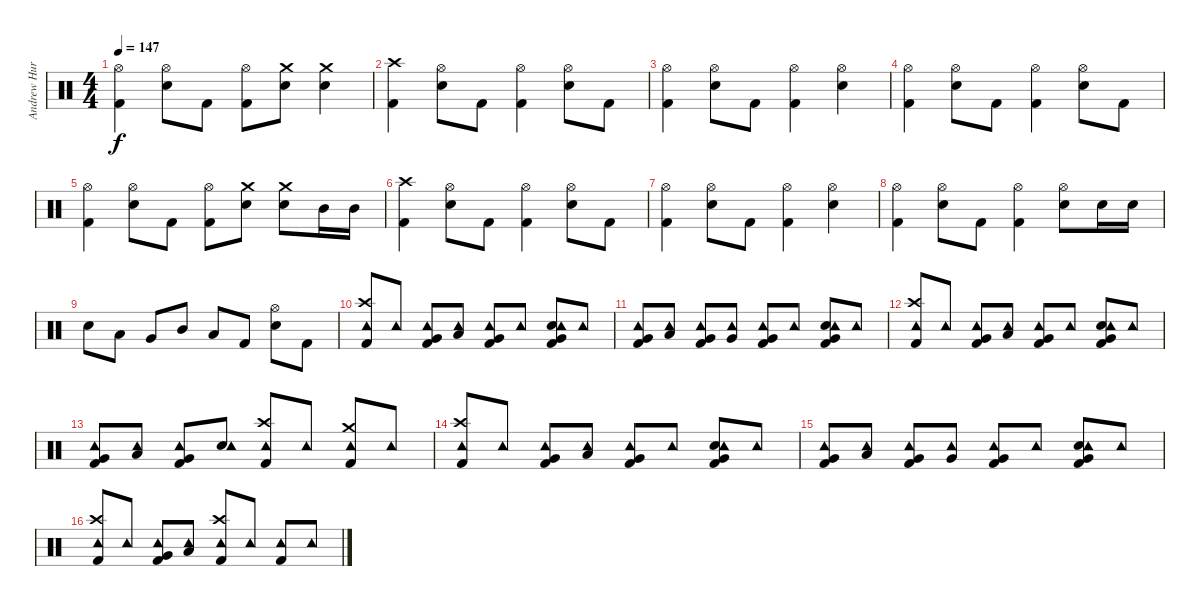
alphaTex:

\track ("Andrew Hurley (Drums)" "Andrew Hur") {instrument percussion}
\staff {score}
\articulation defaults
\ts (4 4)
\tempo 147
\clef neutral
\ks c
("Hi-Hat (open)" "Kick (hit) 2").4{dy f} ("Hi-Hat (open)" "Snare (hit) 2").8 "Kick (hit) 2".8 ("Hi-Hat (open)" "Kick (hit) 2").8 ("Crash medium (hit)" "Snare (hit) 2").8 ("Crash medium (hit)" "Snare (hit) 2").4 |
("Crash high (hit)" "Kick (hit) 2").4 ("Hi-Hat (open)" "Snare (hit) 2").8 "Kick (hit) 2".8 ("Hi-Hat (open)" "Kick (hit) 2").4 ("Hi-Hat (open)" "Snare (hit) 2").8 "Kick (hit) 2".8 |
("Hi-Hat (open)" "Kick (hit) 2").4 ("Hi-Hat (open)" "Snare (hit) 2").8 "Kick (hit) 2".8 ("Hi-Hat (open)" "Kick (hit) 2").4 ("Hi-Hat (open)" "Snare (hit) 2").4 |
("Hi-Hat (open)" "Kick (hit) 2").4 ("Hi-Hat (open)" "Snare (hit) 2").8 "Kick (hit) 2".8 ("Hi-Hat (open)" "Kick (hit) 2").4 ("Hi-Hat (open)" "Snare (hit) 2").8 "Kick (hit) 2".8 |
("Hi-Hat (open)" "Kick (hit) 2").4 ("Hi-Hat (open)" "Snare (hit) 2").8 "Kick (hit) 2".8 ("Hi-Hat (open)" "Kick (hit) 2").8 ("Crash medium (hit)" "Snare (hit) 2").8 ("Crash medium (hit)" "Snare (hit) 2").8 "Mid Tom (hit)".16 "Mid Tom (hit)".16 |
("Crash high (hit)" "Kick (hit) 2").4 ("Hi-Hat (open)" "Snare (hit) 2").8 "Kick (hit) 2".8 ("Hi-Hat (open)" "Kick (hit) 2").4 ("Hi-Hat (open)" "Snare (hit) 2").8 "Kick (hit) 2".8 |
("Hi-Hat (open)" "Kick (hit) 2").4 ("Hi-Hat (open)" "Snare (hit) 2").8 "Kick (hit) 2".8 ("Hi-Hat (open)" "Kick (hit) 2").4 ("Hi-Hat (open)" "Snare (hit) 2").4 |
("Hi-Hat (open)" "Kick (hit) 2").4 ("Hi-Hat (open)" "Snare (hit) 2").8 "Kick (hit) 2".8 ("Hi-Hat (open)" "Kick (hit) 2").4 ("Hi-Hat (open)" "Snare (hit) 2").8 "Snare (hit) 2".16 "Snare (hit) 2".16 |
"Snare (hit) 2".8 "Low Tom (hit)".8 "Very Low Tom (hit)".8 "Mid Tom (hit)".8 "Low Tom (hit)".8 "Kick (hit) 2".8 ("Hi-Hat (open)" "Snare (hit) 2").8 "Kick (hit) 2".8 |
("Crash high (hit)" "Kick (hit) 2" "Tambourine (hit)").8 "Tambourine (hit)".8 ("Very Low Tom (hit)" "Kick (hit) 2" "Tambourine (hit)").8 ("Low Tom (hit)" "Tambourine (hit)").8 ("Very Low Tom (hit)" "Kick (hit) 2" "Tambourine (hit)").8 "Tambourine (hit)".8 ("Very Low Tom (hit)" "Snare (hit) 2" "Kick (hit) 2" "Tambourine (hit)").8 "Tambourine (hit)".8 |
("Very Low Tom (hit)" "Kick (hit) 2" "Tambourine (hit)").8 ("Low Tom (hit)" "Tambourine (hit)").8 ("Very Low Tom (hit)" "Kick (hit) 2" "Tambourine (hit)").8 ("Very Low Tom (hit)" "Tambourine (hit)").8 ("Very Low Tom (hit)" "Kick (hit) 2" "Tambourine (hit)").8 "Tambourine (hit)".8 ("Very Low Tom (hit)" "Snare (hit) 2" "Kick (hit) 2" "Tambourine (hit)").8 "Tambourine (hit)".8 |
("Crash high (hit)" "Kick (hit) 2" "Tambourine (hit)").8 "Tambourine (hit)".8 ("Very Low Tom (hit)" "Kick (hit) 2" "Tambourine (hit)").8 ("Low Tom (hit)" "Tambourine (hit)").8 ("Very Low Tom (hit)" "Kick (hit) 2" "Tambourine (hit)").8 "Tambourine (hit)".8 ("Very Low Tom (hit)" "Snare (hit) 2" "Kick (hit) 2" "Tambourine (hit)").8 "Tambourine (hit)".8 |
("Very Low Tom (hit)" "Kick (hit) 2" "Tambourine (hit)").8 ("Low Tom (hit)" "Tambourine (hit)").8 ("Very Low Tom (hit)" "Kick (hit) 2" "Tambourine (hit)").8 ("Snare (hit) 2" "Tambourine (hit)").8 ("Crash high (hit)" "Kick (hit) 2" "Tambourine (hit)").8 "Tambourine (hit)".8 ("Crash medium (hit)" "Kick (hit) 2" "Tambourine (hit)").8 "Tambourine (hit)".8 |
("Crash high (hit)" "Kick (hit) 2" "Tambourine (hit)").8 "Tambourine (hit)".8 ("Very Low Tom (hit)" "Kick (hit) 2" "Tambourine (hit)").8 ("Low Tom (hit)" "Tambourine (hit)").8 ("Very Low Tom (hit)" "Kick (hit) 2" "Tambourine (hit)").8 "Tambourine (hit)".8 ("Very Low Tom (hit)" "Snare (hit) 2" "Kick (hit) 2" "Tambourine (hit)").8 "Tambourine (hit)".8 |
("Very Low Tom (hit)" "Kick (hit) 2" "Tambourine (hit)").8 ("Low Tom (hit)" "Tambourine (hit)").8 ("Very Low Tom (hit)" "Kick (hit) 2" "Tambourine (hit)").8 ("Very Low Tom (hit)" "Tambourine (hit)").8 ("Very Low Tom (hit)" "Kick (hit) 2" "Tambourine (hit)").8 "Tambourine (hit)".8 ("Very Low Tom (hit)" "Snare (hit) 2" "Kick (hit) 2" "Tambourine (hit)").8 "Tambourine (hit)".8 |
("Crash high (hit)" "Kick (hit) 2" "Tambourine (hit)").8 "Tambourine (hit)".8 ("Very Low Tom (hit)" "Kick (hit) 2" "Tambourine (hit)").8 ("Low Tom (hit)" "Tambourine (hit)").8 ("Crash high (hit)" "Kick (hit) 2" "Tambourine (hit)").8 "Tambourine (hit)".8 ("Kick (hit) 2" "Tambourine (hit)").8 "Tambourine (hit)".8
